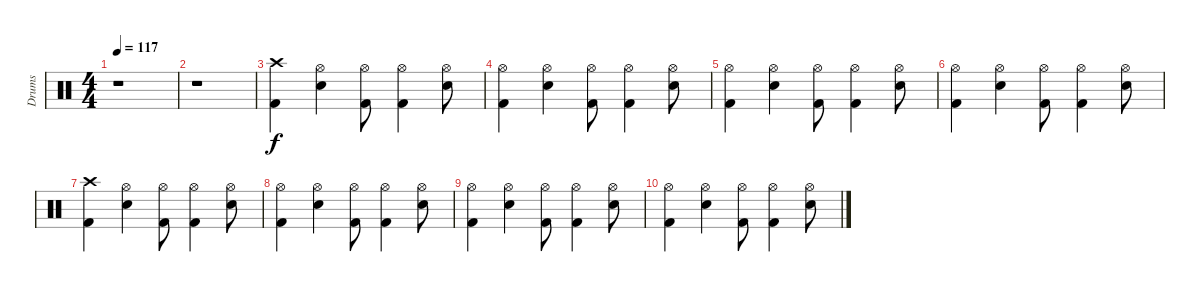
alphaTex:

\track ("Drums" "Drums") {instrument percussion}
\staff {score}
\articulation defaults
\ts (4 4)
\tempo 117
\clef neutral
\ks c
r.1{dy f} |
r.1 |
("Crash high (hit)" "Kick (hit) 2").4 ("Hi-Hat (open)" "Snare (hit) 2").4 ("Hi-Hat (open)" "Kick (hit) 2").8 ("Hi-Hat (open)" "Kick (hit) 2").4 ("Hi-Hat (open)" "Snare (hit) 2").8 |
("Hi-Hat (open)" "Kick (hit) 2").4 ("Hi-Hat (open)" "Snare (hit) 2").4 ("Hi-Hat (open)" "Kick (hit) 2").8 ("Hi-Hat (open)" "Kick (hit) 2").4 ("Hi-Hat (open)" "Snare (hit) 2").8 |
("Hi-Hat (open)" "Kick (hit) 2").4 ("Hi-Hat (open)" "Snare (hit) 2").4 ("Hi-Hat (open)" "Kick (hit) 2").8 ("Hi-Hat (open)" "Kick (hit) 2").4 ("Hi-Hat (open)" "Snare (hit) 2").8 |
("Hi-Hat (open)" "Kick (hit) 2").4 ("Hi-Hat (open)" "Snare (hit) 2").4 ("Hi-Hat (open)" "Kick (hit) 2").8 ("Hi-Hat (open)" "Kick (hit) 2").4 ("Hi-Hat (open)" "Snare (hit) 2").8 |
("Crash high (hit)" "Kick (hit) 2").4 ("Hi-Hat (open)" "Snare (hit) 2").4 ("Hi-Hat (open)" "Kick (hit) 2").8 ("Hi-Hat (open)" "Kick (hit) 2").4 ("Hi-Hat (open)" "Snare (hit) 2").8 |
("Hi-Hat (open)" "Kick (hit) 2").4 ("Hi-Hat (open)" "Snare (hit) 2").4 ("Hi-Hat (open)" "Kick (hit) 2").8 ("Hi-Hat (open)" "Kick (hit) 2").4 ("Hi-Hat (open)" "Snare (hit) 2").8 |
("Hi-Hat (open)" "Kick (hit) 2").4 ("Hi-Hat (open)" "Snare (hit) 2").4 ("Hi-Hat (open)" "Kick (hit) 2").8 ("Hi-Hat (open)" "Kick (hit) 2").4 ("Hi-Hat (open)" "Snare (hit) 2").8 |
("Hi-Hat (open)" "Kick (hit) 2").4 ("Hi-Hat (open)" "Snare (hit) 2").4 ("Hi-Hat (open)" "Kick (hit) 2").8 ("Hi-Hat (open)" "Kick (hit) 2").4 ("Hi-Hat (open)" "Snare (hit) 2").8
